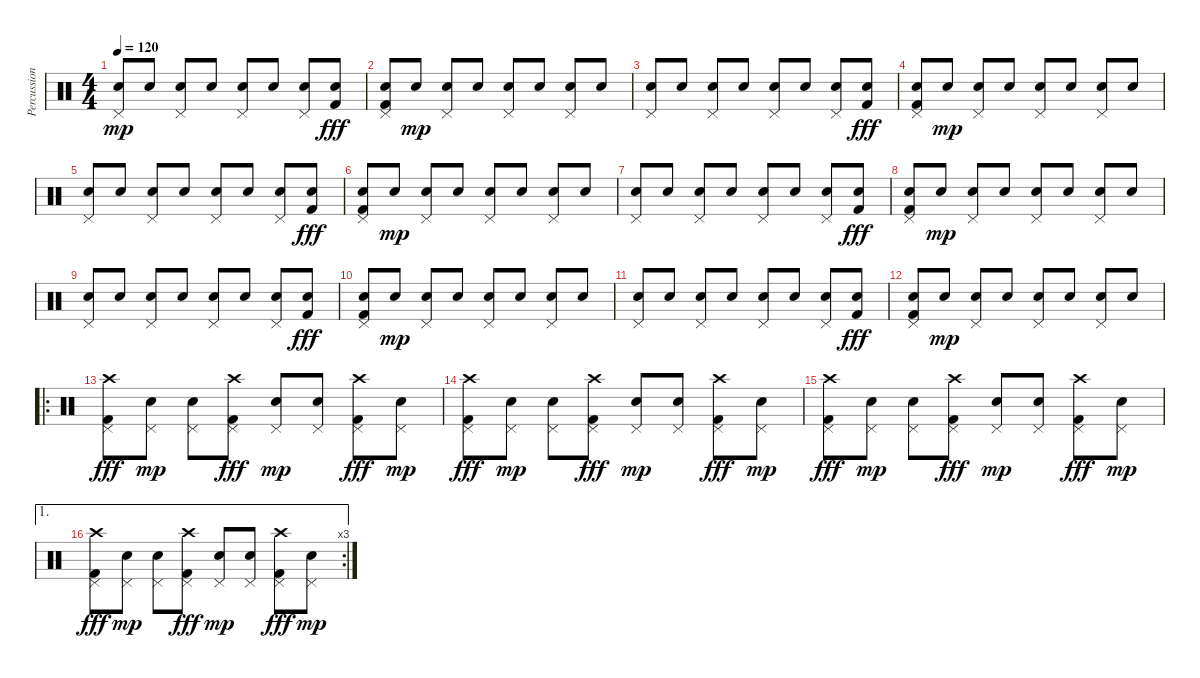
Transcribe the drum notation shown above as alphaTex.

\track ("Percussion" "Percussion") {instrument percussion}
\staff {score}
\articulation defaults
\ts (4 4)
\tempo 120
\clef neutral
\ks c
("Pedal Hi-Hat (hit)" "Electric Snare (hit)").8{dy mp} "Electric Snare (hit)".8 ("Pedal Hi-Hat (hit)" "Electric Snare (hit)").8 "Electric Snare (hit)".8 ("Pedal Hi-Hat (hit)" "Electric Snare (hit)").8 "Electric Snare (hit)".8 ("Pedal Hi-Hat (hit)" "Electric Snare (hit)").8 ("Electric Snare (hit)" "Kick (hit) 2").8{dy fff} |
("Pedal Hi-Hat (hit)" "Electric Snare (hit)" "Kick (hit) 2").8 "Electric Snare (hit)".8{dy mp} ("Pedal Hi-Hat (hit)" "Electric Snare (hit)").8 "Electric Snare (hit)".8 ("Pedal Hi-Hat (hit)" "Electric Snare (hit)").8 "Electric Snare (hit)".8 ("Pedal Hi-Hat (hit)" "Electric Snare (hit)").8 "Electric Snare (hit)".8 |
("Pedal Hi-Hat (hit)" "Electric Snare (hit)").8 "Electric Snare (hit)".8 ("Pedal Hi-Hat (hit)" "Electric Snare (hit)").8 "Electric Snare (hit)".8 ("Pedal Hi-Hat (hit)" "Electric Snare (hit)").8 "Electric Snare (hit)".8 ("Pedal Hi-Hat (hit)" "Electric Snare (hit)").8 ("Electric Snare (hit)" "Kick (hit) 2").8{dy fff} |
("Pedal Hi-Hat (hit)" "Electric Snare (hit)" "Kick (hit) 2").8 "Electric Snare (hit)".8{dy mp} ("Pedal Hi-Hat (hit)" "Electric Snare (hit)").8 "Electric Snare (hit)".8 ("Pedal Hi-Hat (hit)" "Electric Snare (hit)").8 "Electric Snare (hit)".8 ("Pedal Hi-Hat (hit)" "Electric Snare (hit)").8 "Electric Snare (hit)".8 |
("Pedal Hi-Hat (hit)" "Electric Snare (hit)").8 "Electric Snare (hit)".8 ("Pedal Hi-Hat (hit)" "Electric Snare (hit)").8 "Electric Snare (hit)".8 ("Pedal Hi-Hat (hit)" "Electric Snare (hit)").8 "Electric Snare (hit)".8 ("Pedal Hi-Hat (hit)" "Electric Snare (hit)").8 ("Electric Snare (hit)" "Kick (hit) 2").8{dy fff} |
("Pedal Hi-Hat (hit)" "Electric Snare (hit)" "Kick (hit) 2").8 "Electric Snare (hit)".8{dy mp} ("Pedal Hi-Hat (hit)" "Electric Snare (hit)").8 "Electric Snare (hit)".8 ("Pedal Hi-Hat (hit)" "Electric Snare (hit)").8 "Electric Snare (hit)".8 ("Pedal Hi-Hat (hit)" "Electric Snare (hit)").8 "Electric Snare (hit)".8 |
("Pedal Hi-Hat (hit)" "Electric Snare (hit)").8 "Electric Snare (hit)".8 ("Pedal Hi-Hat (hit)" "Electric Snare (hit)").8 "Electric Snare (hit)".8 ("Pedal Hi-Hat (hit)" "Electric Snare (hit)").8 "Electric Snare (hit)".8 ("Pedal Hi-Hat (hit)" "Electric Snare (hit)").8 ("Electric Snare (hit)" "Kick (hit) 2").8{dy fff} |
("Pedal Hi-Hat (hit)" "Electric Snare (hit)" "Kick (hit) 2").8 "Electric Snare (hit)".8{dy mp} ("Pedal Hi-Hat (hit)" "Electric Snare (hit)").8 "Electric Snare (hit)".8 ("Pedal Hi-Hat (hit)" "Electric Snare (hit)").8 "Electric Snare (hit)".8 ("Pedal Hi-Hat (hit)" "Electric Snare (hit)").8 "Electric Snare (hit)".8 |
("Pedal Hi-Hat (hit)" "Electric Snare (hit)").8 "Electric Snare (hit)".8 ("Pedal Hi-Hat (hit)" "Electric Snare (hit)").8 "Electric Snare (hit)".8 ("Pedal Hi-Hat (hit)" "Electric Snare (hit)").8 "Electric Snare (hit)".8 ("Pedal Hi-Hat (hit)" "Electric Snare (hit)").8 ("Electric Snare (hit)" "Kick (hit) 2").8{dy fff} |
("Pedal Hi-Hat (hit)" "Electric Snare (hit)" "Kick (hit) 2").8 "Electric Snare (hit)".8{dy mp} ("Pedal Hi-Hat (hit)" "Electric Snare (hit)").8 "Electric Snare (hit)".8 ("Pedal Hi-Hat (hit)" "Electric Snare (hit)").8 "Electric Snare (hit)".8 ("Pedal Hi-Hat (hit)" "Electric Snare (hit)").8 "Electric Snare (hit)".8 |
("Pedal Hi-Hat (hit)" "Electric Snare (hit)").8 "Electric Snare (hit)".8 ("Pedal Hi-Hat (hit)" "Electric Snare (hit)").8 "Electric Snare (hit)".8 ("Pedal Hi-Hat (hit)" "Electric Snare (hit)").8 "Electric Snare (hit)".8 ("Pedal Hi-Hat (hit)" "Electric Snare (hit)").8 ("Electric Snare (hit)" "Kick (hit) 2").8{dy fff} |
("Pedal Hi-Hat (hit)" "Electric Snare (hit)" "Kick (hit) 2").8 "Electric Snare (hit)".8{dy mp} ("Pedal Hi-Hat (hit)" "Electric Snare (hit)").8 "Electric Snare (hit)".8 ("Pedal Hi-Hat (hit)" "Electric Snare (hit)").8 "Electric Snare (hit)".8 ("Pedal Hi-Hat (hit)" "Electric Snare (hit)").8 "Electric Snare (hit)".8 |
\ro
("Pedal Hi-Hat (hit)" "Crash high (hit)" "Kick (hit) 2").8{dy fff} ("Pedal Hi-Hat (hit)" "Electric Snare (hit)").8{dy mp} ("Pedal Hi-Hat (hit)" "Electric Snare (hit)").8 ("Pedal Hi-Hat (hit)" "Crash high (hit)" "Kick (hit) 2").8{dy fff} ("Pedal Hi-Hat (hit)" "Electric Snare (hit)").8{dy mp} ("Pedal Hi-Hat (hit)" "Electric Snare (hit)").8 ("Pedal Hi-Hat (hit)" "Crash high (hit)" "Kick (hit) 2").8{dy fff} ("Pedal Hi-Hat (hit)" "Electric Snare (hit)").8{dy mp} |
("Pedal Hi-Hat (hit)" "Crash high (hit)" "Kick (hit) 2").8{dy fff} ("Pedal Hi-Hat (hit)" "Electric Snare (hit)").8{dy mp} ("Pedal Hi-Hat (hit)" "Electric Snare (hit)").8 ("Pedal Hi-Hat (hit)" "Crash high (hit)" "Kick (hit) 2").8{dy fff} ("Pedal Hi-Hat (hit)" "Electric Snare (hit)").8{dy mp} ("Pedal Hi-Hat (hit)" "Electric Snare (hit)").8 ("Pedal Hi-Hat (hit)" "Crash high (hit)" "Kick (hit) 2").8{dy fff} ("Pedal Hi-Hat (hit)" "Electric Snare (hit)").8{dy mp} |
("Pedal Hi-Hat (hit)" "Crash high (hit)" "Kick (hit) 2").8{dy fff} ("Pedal Hi-Hat (hit)" "Electric Snare (hit)").8{dy mp} ("Pedal Hi-Hat (hit)" "Electric Snare (hit)").8 ("Pedal Hi-Hat (hit)" "Crash high (hit)" "Kick (hit) 2").8{dy fff} ("Pedal Hi-Hat (hit)" "Electric Snare (hit)").8{dy mp} ("Pedal Hi-Hat (hit)" "Electric Snare (hit)").8 ("Pedal Hi-Hat (hit)" "Crash high (hit)" "Kick (hit) 2").8{dy fff} ("Pedal Hi-Hat (hit)" "Electric Snare (hit)").8{dy mp} |
\ae 1
\rc 3
("Pedal Hi-Hat (hit)" "Crash high (hit)" "Kick (hit) 2").8{dy fff} ("Pedal Hi-Hat (hit)" "Electric Snare (hit)").8{dy mp} ("Pedal Hi-Hat (hit)" "Electric Snare (hit)").8 ("Pedal Hi-Hat (hit)" "Crash high (hit)" "Kick (hit) 2").8{dy fff} ("Pedal Hi-Hat (hit)" "Electric Snare (hit)").8{dy mp} ("Pedal Hi-Hat (hit)" "Electric Snare (hit)").8 ("Pedal Hi-Hat (hit)" "Crash high (hit)" "Kick (hit) 2").8{dy fff} ("Pedal Hi-Hat (hit)" "Electric Snare (hit)").8{dy mp}
